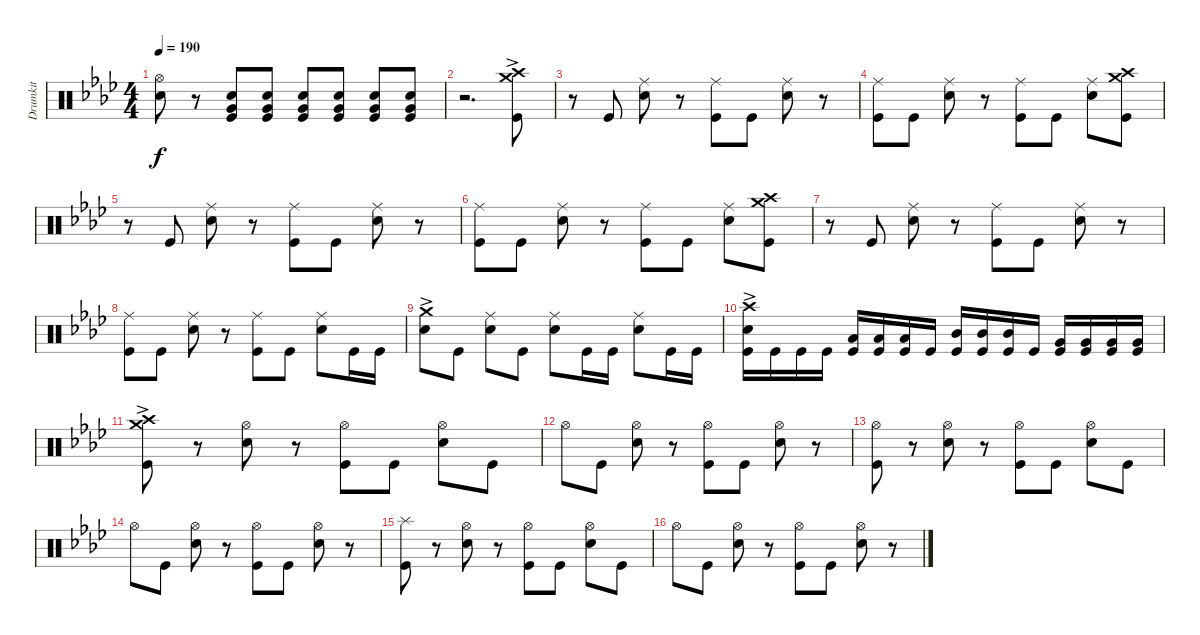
\track ("Drumkit" "Drumkit") {instrument percussion}
\staff {score}
\articulation defaults
\ts (4 4)
\tempo 190
\clef neutral
\ks ab
("Snare (hit) 2" "Hi-Hat (open)").8{dy f} r.8 ("Snare (hit) 2" "Very Low Tom (hit)" "Kick (hit)").8 ("Snare (hit) 2" "Very Low Tom (hit)" "Kick (hit)").8 ("Snare (hit) 2" "Very Low Tom (hit)" "Kick (hit)").8 ("Snare (hit) 2" "Very Low Tom (hit)" "Kick (hit)").8 ("Snare (hit) 2" "Very Low Tom (hit)" "Kick (hit)").8 ("Snare (hit) 2" "Very Low Tom (hit)" "Kick (hit)").8 |
r.2{d} ("Crash medium (hit)"{ac} "Crash high (hit)"{ac} "Kick (hit)"{ac}).8 |
r.8 "Kick (hit)".8 ("Snare (hit) 2" "Ride (middle)").8 r.8 ("Kick (hit)" "Ride (middle)").8 "Kick (hit)".8 ("Snare (hit) 2" "Ride (middle)").8 r.8 |
("Kick (hit)" "Ride (middle)").8 "Kick (hit)".8 ("Snare (hit) 2" "Ride (middle)").8 r.8 ("Kick (hit)" "Ride (middle)").8 "Kick (hit)".8 ("Snare (hit) 2" "Ride (middle)").8 ("Crash medium (hit)" "Crash high (hit)" "Kick (hit)").8 |
r.8 "Kick (hit)".8 ("Snare (hit) 2" "Ride (middle)").8 r.8 ("Kick (hit)" "Ride (middle)").8 "Kick (hit)".8 ("Snare (hit) 2" "Ride (middle)").8 r.8 |
("Kick (hit)" "Ride (middle)").8 "Kick (hit)".8 ("Snare (hit) 2" "Ride (middle)").8 r.8 ("Kick (hit)" "Ride (middle)").8 "Kick (hit)".8 ("Snare (hit) 2" "Ride (middle)").8 ("Crash medium (hit)" "Crash high (hit)" "Kick (hit)").8 |
r.8 "Kick (hit)".8 ("Snare (hit) 2" "Ride (middle)").8 r.8 ("Kick (hit)" "Ride (middle)").8 "Kick (hit)".8 ("Snare (hit) 2" "Ride (middle)").8 r.8 |
("Kick (hit)" "Ride (middle)").8 "Kick (hit)".8 ("Snare (hit) 2" "Ride (middle)").8 r.8 ("Kick (hit)" "Ride (middle)").8 "Kick (hit)".8 ("Snare (hit) 2" "Ride (middle)").8 "Kick (hit)".16 "Kick (hit)".16 |
("Snare (hit) 2" "Crash medium (hit)"{ac}).8 "Kick (hit)".8 ("Snare (hit) 2" "Ride (middle)").8 "Kick (hit)".8 ("Snare (hit) 2" "Ride (middle)").8 "Kick (hit)".16 "Kick (hit)".16 ("Snare (hit) 2" "Ride (middle)").8 "Kick (hit)".16 "Kick (hit)".16 |
("Kick (hit)" "Snare (hit) 2" "Crash high (hit)"{ac}).16 "Kick (hit)".16 "Kick (hit)".16 "Kick (hit)".16 ("Kick (hit)" "Low Tom (hit)").16 ("Kick (hit)" "Low Tom (hit)").16 ("Kick (hit)" "Low Tom (hit)").16 "Kick (hit)".16 ("Kick (hit)" "Mid Tom (hit)").16 ("Kick (hit)" "Mid Tom (hit)").16 ("Kick (hit)" "Mid Tom (hit)").16 "Kick (hit)".16 ("Kick (hit)" "Very Low Tom (hit)").16 ("Kick (hit)" "Very Low Tom (hit)").16 ("Kick (hit)" "Very Low Tom (hit)").16 ("Kick (hit)" "Very Low Tom (hit)").16 |
("Crash medium (hit)"{ac} "Crash high (hit)" "Kick (hit)").8 r.8 ("Hi-Hat (open)" "Snare (hit) 2").8 r.8 ("Hi-Hat (open)" "Kick (hit)").8 "Kick (hit)".8 ("Hi-Hat (open)" "Snare (hit) 2").8 "Kick (hit)".8 |
"Hi-Hat (open)".8 "Kick (hit)".8 ("Hi-Hat (open)" "Snare (hit) 2").8 r.8 ("Hi-Hat (open)" "Kick (hit)").8 "Kick (hit)".8 ("Hi-Hat (open)" "Snare (hit) 2").8 r.8 |
("Kick (hit)" "Hi-Hat (open)").8 r.8 ("Hi-Hat (open)" "Snare (hit) 2").8 r.8 ("Hi-Hat (open)" "Kick (hit)").8 "Kick (hit)".8 ("Hi-Hat (open)" "Snare (hit) 2").8 "Kick (hit)".8 |
"Hi-Hat (open)".8 "Kick (hit)".8 ("Hi-Hat (open)" "Snare (hit) 2").8 r.8 ("Hi-Hat (open)" "Kick (hit)").8 "Kick (hit)".8 ("Hi-Hat (open)" "Snare (hit) 2").8 r.8 |
("Kick (hit)" "Splash (hit)").8 r.8 ("Hi-Hat (open)" "Snare (hit) 2").8 r.8 ("Hi-Hat (open)" "Kick (hit)").8 "Kick (hit)".8 ("Hi-Hat (open)" "Snare (hit) 2").8 "Kick (hit)".8 |
"Hi-Hat (open)".8 "Kick (hit)".8 ("Hi-Hat (open)" "Snare (hit) 2").8 r.8 ("Hi-Hat (open)" "Kick (hit)").8 "Kick (hit)".8 ("Hi-Hat (open)" "Snare (hit) 2").8 r.8
